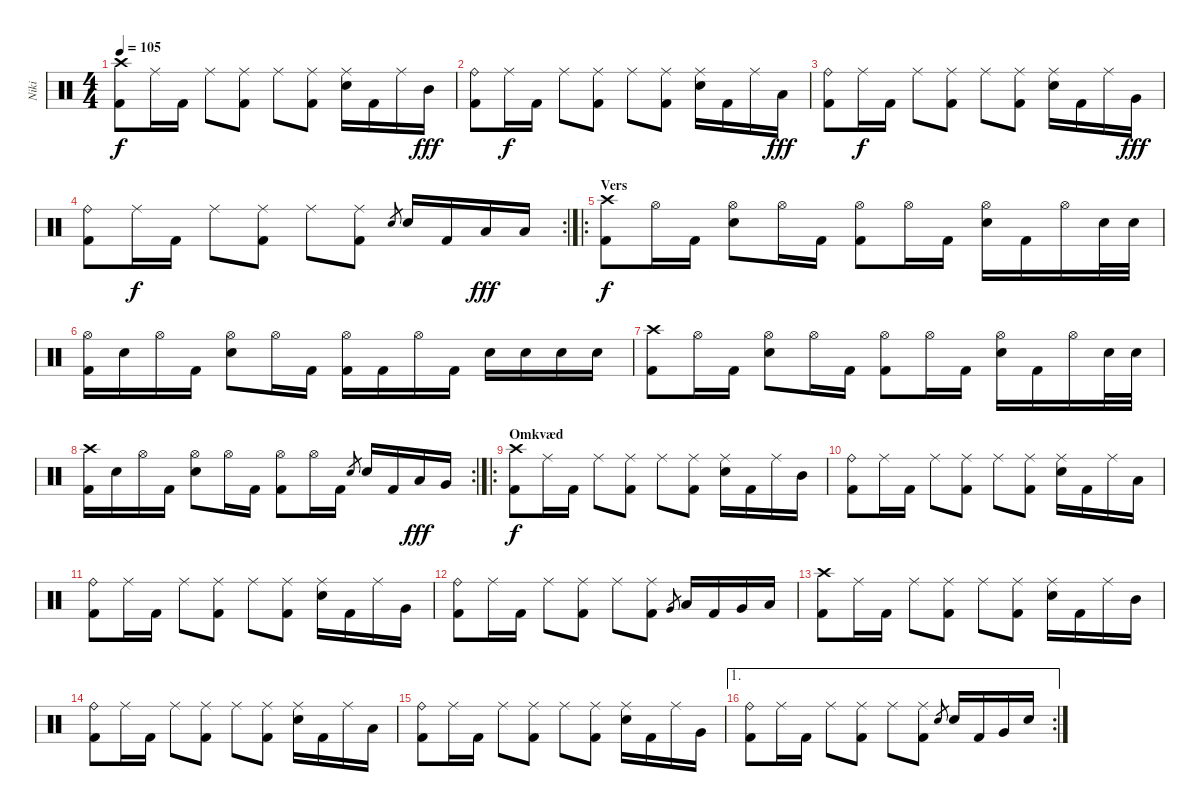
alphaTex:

\track ("Niki" "Niki") {instrument percussion}
\staff {score}
\articulation defaults
\ts (4 4)
\tempo 105
\clef neutral
\ks c
("Crash high (hit)" "Kick (hit) 2").8{dy f} "Ride (middle)".16 "Kick (hit) 2".16 "Ride (middle)".8 ("Ride (middle)" "Kick (hit) 2").8 "Ride (middle)".8 ("Ride (middle)" "Kick (hit) 2").8 ("Ride (middle)" "Snare (hit) 2").16 "Kick (hit) 2".16 "Ride (middle)".16 "Mid Tom (hit)".16{dy fff} |
("Ride (bell)" "Kick (hit) 2").8 "Ride (middle)".16{dy f} "Kick (hit) 2".16 "Ride (middle)".8 ("Ride (middle)" "Kick (hit) 2").8 "Ride (middle)".8 ("Ride (middle)" "Kick (hit) 2").8 ("Ride (middle)" "Snare (hit) 2").16 "Kick (hit) 2".16 "Ride (middle)".16 "Low Tom (hit)".16{dy fff} |
("Ride (bell)" "Kick (hit) 2").8 "Ride (middle)".16{dy f} "Kick (hit) 2".16 "Ride (middle)".8 ("Ride (middle)" "Kick (hit) 2").8 "Ride (middle)".8 ("Ride (middle)" "Kick (hit) 2").8 ("Ride (middle)" "Snare (hit) 2").16 "Kick (hit) 2".16 "Ride (middle)".16 "Very Low Tom (hit)".16{dy fff} |
\rc 2
("Ride (bell)" "Kick (hit) 2").8 "Ride (middle)".16{dy f} "Kick (hit) 2".16 "Ride (middle)".8 ("Ride (middle)" "Kick (hit) 2").8 "Ride (middle)".8 ("Ride (middle)" "Kick (hit) 2").8 "Snare (hit) 2".8{gr} "Snare (hit) 2".16 "Kick (hit) 2".16 "Low Tom (hit)".16{dy fff} "Low Floor Tom (hit)".16 |
\ro
\section ("" "Vers")
("Crash high (hit)" "Kick (hit) 2").8{dy f} "Hi-Hat (open)".16 "Kick (hit) 2".16 ("Hi-Hat (open)" "Snare (hit) 2").8 "Hi-Hat (open)".16 "Kick (hit) 2".16 ("Hi-Hat (open)" "Kick (hit) 2").8 "Hi-Hat (open)".16 "Kick (hit) 2".16 ("Hi-Hat (open)" "Snare (hit) 2").16 "Kick (hit) 2".16 "Hi-Hat (open)".16 "Snare (hit) 2".32 "Snare (hit) 2".32 |
("Hi-Hat (open)" "Kick (hit) 2").16 "Snare (hit) 2".16 "Hi-Hat (open)".16 "Kick (hit) 2".16 ("Hi-Hat (open)" "Snare (hit) 2").8 "Hi-Hat (open)".16 "Kick (hit) 2".16 ("Hi-Hat (open)" "Kick (hit) 2").16 "Kick (hit) 2".16 "Hi-Hat (open)".16 "Kick (hit) 2".16 "Snare (hit) 2".16 "Snare (hit) 2".16 "Snare (hit) 2".16 "Snare (hit) 2".16 |
("Crash high (hit)" "Kick (hit) 2").8 "Hi-Hat (open)".16 "Kick (hit) 2".16 ("Hi-Hat (open)" "Snare (hit) 2").8 "Hi-Hat (open)".16 "Kick (hit) 2".16 ("Hi-Hat (open)" "Kick (hit) 2").8 "Hi-Hat (open)".16 "Kick (hit) 2".16 ("Hi-Hat (open)" "Snare (hit) 2").16 "Kick (hit) 2".16 "Hi-Hat (open)".16 "Snare (hit) 2".32 "Snare (hit) 2".32 |
\rc 2
("Crash high (hit)" "Kick (hit) 2").16 "Snare (hit) 2".16 "Hi-Hat (open)".16 "Kick (hit) 2".16 ("Hi-Hat (open)" "Snare (hit) 2").8 "Hi-Hat (open)".16 "Kick (hit) 2".16 ("Hi-Hat (open)" "Kick (hit) 2").8 "Hi-Hat (open)".16 "Kick (hit) 2".16 "Snare (hit) 2".8{gr} "Snare (hit) 2".16 "Kick (hit) 2".16 "Low Floor Tom (hit)".16{dy fff} "Very Low Tom (hit)".16 |
\ro
\section ("" "Omkvæd")
("Crash high (hit)" "Kick (hit) 2").8{dy f} "Ride (middle)".16 "Kick (hit) 2".16 "Ride (middle)".8 ("Ride (middle)" "Kick (hit) 2").8 "Ride (middle)".8 ("Ride (middle)" "Kick (hit) 2").8 ("Ride (middle)" "Snare (hit) 2").16 "Kick (hit) 2".16 "Ride (middle)".16 "Mid Tom (hit)".16 |
("Ride (bell)" "Kick (hit) 2").8 "Ride (middle)".16 "Kick (hit) 2".16 "Ride (middle)".8 ("Ride (middle)" "Kick (hit) 2").8 "Ride (middle)".8 ("Ride (middle)" "Kick (hit) 2").8 ("Ride (middle)" "Snare (hit) 2").16 "Kick (hit) 2".16 "Ride (middle)".16 "Low Tom (hit)".16 |
("Ride (bell)" "Kick (hit) 2").8 "Ride (middle)".16 "Kick (hit) 2".16 "Ride (middle)".8 ("Ride (middle)" "Kick (hit) 2").8 "Ride (middle)".8 ("Ride (middle)" "Kick (hit) 2").8 ("Ride (middle)" "Snare (hit) 2").16 "Kick (hit) 2".16 "Ride (middle)".16 "Very Low Tom (hit)".16 |
("Ride (bell)" "Kick (hit) 2").8 "Ride (middle)".16 "Kick (hit) 2".16 "Ride (middle)".8 ("Ride (middle)" "Kick (hit) 2").8 "Ride (middle)".8 ("Ride (middle)" "Kick (hit) 2").8 "Very Low Tom (hit)".8{gr} "Low Tom (hit)".16 "Kick (hit) 2".16 "Very Low Tom (hit)".16 "Low Tom (hit)".16 |
("Crash high (hit)" "Kick (hit) 2").8 "Ride (middle)".16 "Kick (hit) 2".16 "Ride (middle)".8 ("Ride (middle)" "Kick (hit) 2").8 "Ride (middle)".8 ("Ride (middle)" "Kick (hit) 2").8 ("Ride (middle)" "Snare (hit) 2").16 "Kick (hit) 2".16 "Ride (middle)".16 "Mid Tom (hit)".16 |
("Ride (bell)" "Kick (hit) 2").8 "Ride (middle)".16 "Kick (hit) 2".16 "Ride (middle)".8 ("Ride (middle)" "Kick (hit) 2").8 "Ride (middle)".8 ("Ride (middle)" "Kick (hit) 2").8 ("Ride (middle)" "Snare (hit) 2").16 "Kick (hit) 2".16 "Ride (middle)".16 "Low Tom (hit)".16 |
("Ride (bell)" "Kick (hit) 2").8 "Ride (middle)".16 "Kick (hit) 2".16 "Ride (middle)".8 ("Ride (middle)" "Kick (hit) 2").8 "Ride (middle)".8 ("Ride (middle)" "Kick (hit) 2").8 ("Ride (middle)" "Snare (hit) 2").16 "Kick (hit) 2".16 "Ride (middle)".16 "Very Low Tom (hit)".16 |
\ae 1
\rc 2
("Ride (bell)" "Kick (hit) 2").8 "Ride (middle)".16 "Kick (hit) 2".16 "Ride (middle)".8 ("Ride (middle)" "Kick (hit) 2").8 "Ride (middle)".8 ("Ride (middle)" "Kick (hit) 2").8 "Snare (hit) 2".8{gr} "Snare (hit) 2".16 "Kick (hit) 2".16 "Very Low Tom (hit)".16 "Snare (hit) 2".16
